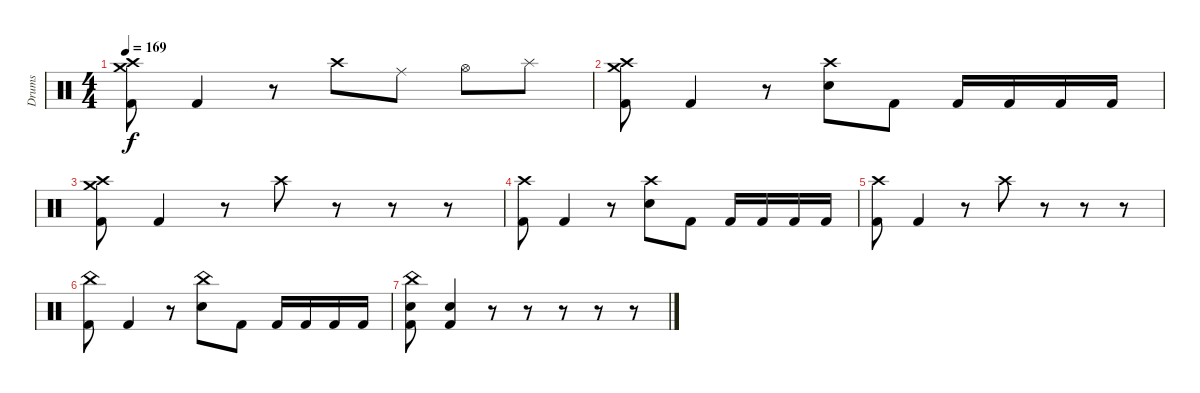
\track ("Drums" "Drums") {instrument percussion}
\staff {score}
\articulation defaults
\ts (4 4)
\tempo 169
\clef neutral
\ks c
("Crash high (hit)" "Crash medium (hit)" "Kick (hit) 2").8{dy f} "Kick (hit) 2".4 r.8 "Crash high (hit)".8 "Ride (middle)".8 "Hi-Hat (open)".8 "Splash (hit)".8 |
("Crash high (hit)" "Crash medium (hit)" "Kick (hit) 2").8 "Kick (hit) 2".4 r.8 ("Crash high (hit)" "Electric Snare (hit)").8 "Kick (hit) 2".8 "Kick (hit) 2".16 "Kick (hit) 2".16 "Kick (hit) 2".16 "Kick (hit) 2".16 |
("Crash high (hit)" "Crash medium (hit)" "Kick (hit) 2").8 "Kick (hit) 2".4 r.8 "Crash high (hit)".8 r.8 r.8 r.8 |
("Crash high (hit)" "Kick (hit) 2").8 "Kick (hit) 2".4 r.8 ("Crash high (hit)" "Electric Snare (hit)").8 "Kick (hit) 2".8 "Kick (hit) 2".16 "Kick (hit) 2".16 "Kick (hit) 2".16 "Kick (hit) 2".16 |
("Crash high (hit)" "Kick (hit) 2").8 "Kick (hit) 2".4 r.8 "Crash high (hit)".8 r.8 r.8 r.8 |
("China (hit)" "Kick (hit) 2").8 "Kick (hit) 2".4 r.8 ("China (hit)" "Electric Snare (hit)").8 "Kick (hit) 2".8 "Kick (hit) 2".16 "Kick (hit) 2".16 "Kick (hit) 2".16 "Kick (hit) 2".16 |
("China (hit)" "Electric Snare (hit)" "Kick (hit) 2").8 ("Electric Snare (hit)" "Kick (hit) 2").4 r.8 r.8 r.8 r.8 r.8
